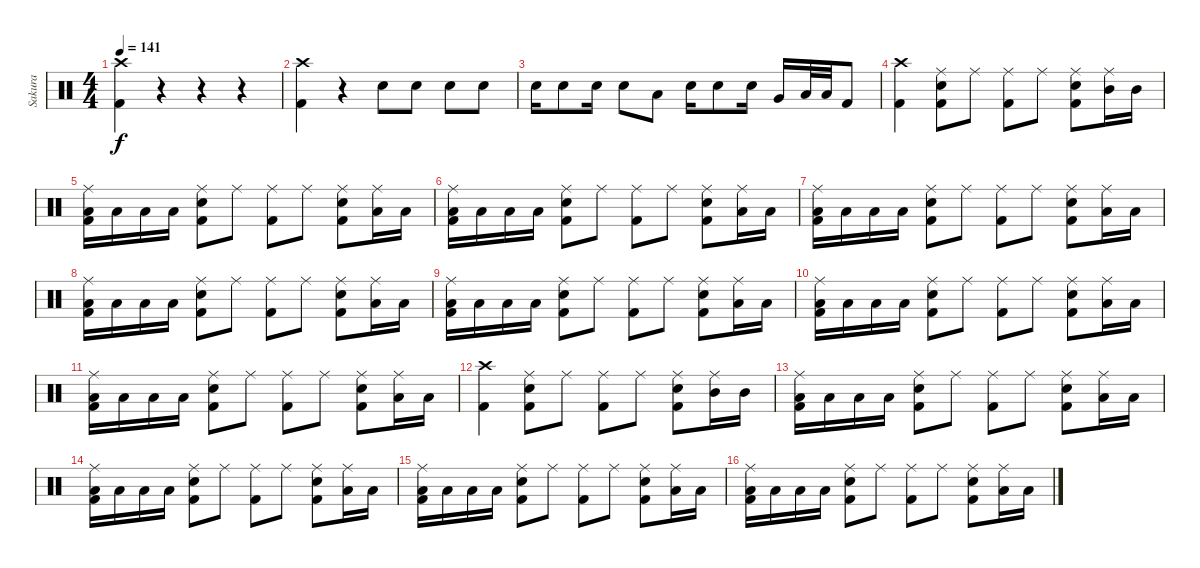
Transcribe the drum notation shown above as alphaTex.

\track ("Sakura" "Sakura") {instrument percussion}
\staff {score}
\articulation defaults
\ts (4 4)
\tempo 141
\clef neutral
\ks c
("Crash high (hit)" "Kick (hit) 2").4{dy f} r.4 r.4 r.4 |
("Crash high (hit)" "Kick (hit) 2").4 r.4 "Snare (hit) 2".8 "Snare (hit) 2".8 "Snare (hit) 2".8 "Snare (hit) 2".8 |
"Snare (hit) 2".16 "Snare (hit) 2".8 "Snare (hit) 2".16 "Snare (hit) 2".8 "Low Tom (hit)".8 "Snare (hit) 2".16 "Snare (hit) 2".8 "Snare (hit) 2".16 "Very Low Tom (hit)".16 "Low Tom (hit)".32 "Low Floor Tom (hit)".32 "Kick (hit) 2".8 |
("Crash high (hit)" "Kick (hit) 2").4 ("Ride (middle)" "Snare (hit) 2" "Kick (hit) 2").8 "Ride (middle)".8 ("Ride (middle)" "Kick (hit) 2").8 "Ride (middle)".8 ("Ride (middle)" "Snare (hit) 2" "Kick (hit) 2").8 ("Ride (middle)" "Mid Tom (hit)").16 "Mid Tom (hit)".16 |
("Ride (middle)" "Low Tom (hit)" "Kick (hit) 2").16 "Low Tom (hit)".16 "Low Floor Tom (hit)".16 "Low Floor Tom (hit)".16 ("Ride (middle)" "Snare (hit) 2" "Kick (hit) 2").8 "Ride (middle)".8 ("Ride (middle)" "Kick (hit) 2").8 "Ride (middle)".8 ("Ride (middle)" "Snare (hit) 2" "Kick (hit) 2").8 ("Ride (middle)" "Low Tom (hit)").16 "Low Tom (hit)".16 |
("Ride (middle)" "Low Tom (hit)" "Kick (hit) 2").16 "Low Tom (hit)".16 "Low Floor Tom (hit)".16 "Low Floor Tom (hit)".16 ("Ride (middle)" "Snare (hit) 2" "Kick (hit) 2").8 "Ride (middle)".8 ("Ride (middle)" "Kick (hit) 2").8 "Ride (middle)".8 ("Ride (middle)" "Snare (hit) 2" "Kick (hit) 2").8 ("Ride (middle)" "Low Tom (hit)").16 "Low Tom (hit)".16 |
("Ride (middle)" "Low Tom (hit)" "Kick (hit) 2").16 "Low Tom (hit)".16 "Low Floor Tom (hit)".16 "Low Floor Tom (hit)".16 ("Ride (middle)" "Snare (hit) 2" "Kick (hit) 2").8 "Ride (middle)".8 ("Ride (middle)" "Kick (hit) 2").8 "Ride (middle)".8 ("Ride (middle)" "Snare (hit) 2" "Kick (hit) 2").8 ("Ride (middle)" "Low Tom (hit)").16 "Low Tom (hit)".16 |
("Ride (middle)" "Low Tom (hit)" "Kick (hit) 2").16 "Low Tom (hit)".16 "Low Floor Tom (hit)".16 "Low Floor Tom (hit)".16 ("Ride (middle)" "Snare (hit) 2" "Kick (hit) 2").8 "Ride (middle)".8 ("Ride (middle)" "Kick (hit) 2").8 "Ride (middle)".8 ("Ride (middle)" "Snare (hit) 2" "Kick (hit) 2").8 ("Ride (middle)" "Low Tom (hit)").16 "Low Tom (hit)".16 |
("Ride (middle)" "Low Tom (hit)" "Kick (hit) 2").16 "Low Tom (hit)".16 "Low Floor Tom (hit)".16 "Low Floor Tom (hit)".16 ("Ride (middle)" "Snare (hit) 2" "Kick (hit) 2").8 "Ride (middle)".8 ("Ride (middle)" "Kick (hit) 2").8 "Ride (middle)".8 ("Ride (middle)" "Snare (hit) 2" "Kick (hit) 2").8 ("Ride (middle)" "Low Tom (hit)").16 "Low Tom (hit)".16 |
("Ride (middle)" "Low Tom (hit)" "Kick (hit) 2").16 "Low Tom (hit)".16 "Low Floor Tom (hit)".16 "Low Floor Tom (hit)".16 ("Ride (middle)" "Snare (hit) 2" "Kick (hit) 2").8 "Ride (middle)".8 ("Ride (middle)" "Kick (hit) 2").8 "Ride (middle)".8 ("Ride (middle)" "Snare (hit) 2" "Kick (hit) 2").8 ("Ride (middle)" "Low Tom (hit)").16 "Low Tom (hit)".16 |
("Ride (middle)" "Low Tom (hit)" "Kick (hit) 2").16 "Low Tom (hit)".16 "Low Floor Tom (hit)".16 "Low Floor Tom (hit)".16 ("Ride (middle)" "Snare (hit) 2" "Kick (hit) 2").8 "Ride (middle)".8 ("Ride (middle)" "Kick (hit) 2").8 "Ride (middle)".8 ("Ride (middle)" "Snare (hit) 2" "Kick (hit) 2").8 ("Ride (middle)" "Low Tom (hit)").16 "Low Tom (hit)".16 |
("Crash high (hit)" "Kick (hit) 2").4 ("Ride (middle)" "Snare (hit) 2" "Kick (hit) 2").8 "Ride (middle)".8 ("Ride (middle)" "Kick (hit) 2").8 "Ride (middle)".8 ("Ride (middle)" "Snare (hit) 2" "Kick (hit) 2").8 ("Ride (middle)" "Mid Tom (hit)").16 "Mid Tom (hit)".16 |
("Ride (middle)" "Low Tom (hit)" "Kick (hit) 2").16 "Low Tom (hit)".16 "Low Floor Tom (hit)".16 "Low Floor Tom (hit)".16 ("Ride (middle)" "Snare (hit) 2" "Kick (hit) 2").8 "Ride (middle)".8 ("Ride (middle)" "Kick (hit) 2").8 "Ride (middle)".8 ("Ride (middle)" "Snare (hit) 2" "Kick (hit) 2").8 ("Ride (middle)" "Low Tom (hit)").16 "Low Tom (hit)".16 |
("Ride (middle)" "Low Tom (hit)" "Kick (hit) 2").16 "Low Tom (hit)".16 "Low Floor Tom (hit)".16 "Low Floor Tom (hit)".16 ("Ride (middle)" "Snare (hit) 2" "Kick (hit) 2").8 "Ride (middle)".8 ("Ride (middle)" "Kick (hit) 2").8 "Ride (middle)".8 ("Ride (middle)" "Snare (hit) 2" "Kick (hit) 2").8 ("Ride (middle)" "Low Tom (hit)").16 "Low Tom (hit)".16 |
("Ride (middle)" "Low Tom (hit)" "Kick (hit) 2").16 "Low Tom (hit)".16 "Low Floor Tom (hit)".16 "Low Floor Tom (hit)".16 ("Ride (middle)" "Snare (hit) 2" "Kick (hit) 2").8 "Ride (middle)".8 ("Ride (middle)" "Kick (hit) 2").8 "Ride (middle)".8 ("Ride (middle)" "Snare (hit) 2" "Kick (hit) 2").8 ("Ride (middle)" "Low Tom (hit)").16 "Low Tom (hit)".16 |
("Ride (middle)" "Low Tom (hit)" "Kick (hit) 2").16 "Low Tom (hit)".16 "Low Floor Tom (hit)".16 "Low Floor Tom (hit)".16 ("Ride (middle)" "Snare (hit) 2" "Kick (hit) 2").8 "Ride (middle)".8 ("Ride (middle)" "Kick (hit) 2").8 "Ride (middle)".8 ("Ride (middle)" "Snare (hit) 2" "Kick (hit) 2").8 ("Ride (middle)" "Low Tom (hit)").16 "Low Tom (hit)".16
